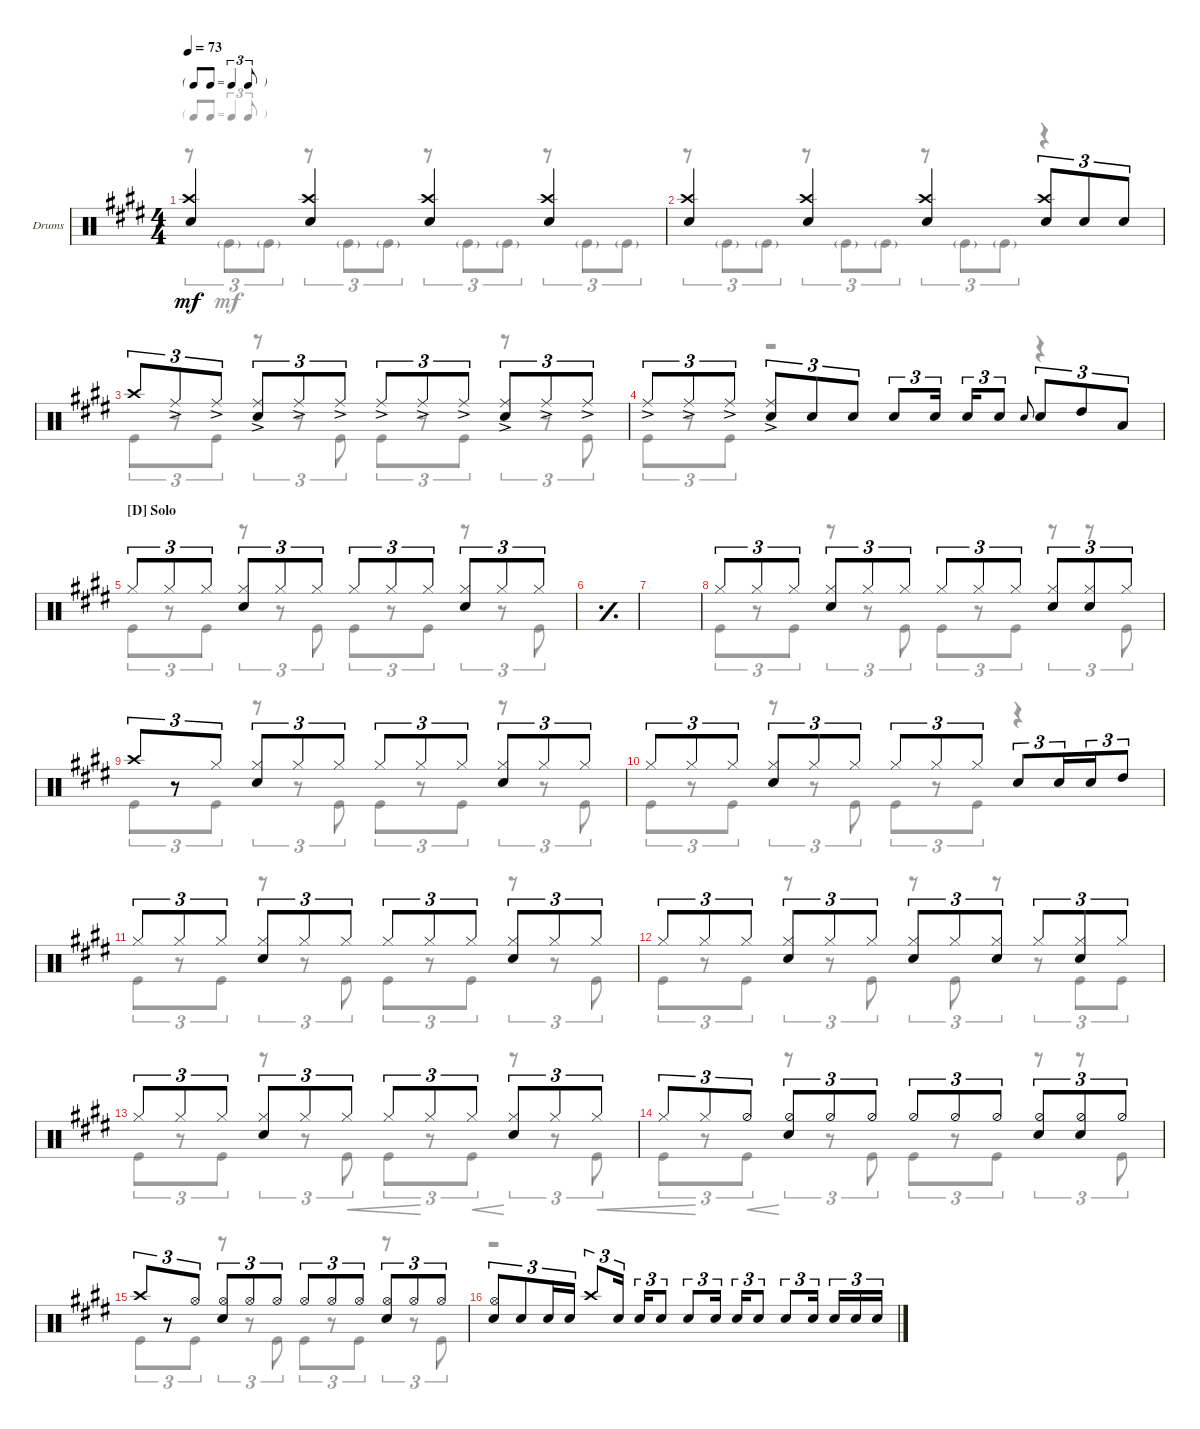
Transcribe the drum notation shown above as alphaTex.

\defaultSystemsLayout 4
\bracketExtendMode groupsimilarinstruments
\firstSystemTrackNameOrientation horizontal
\otherSystemsTrackNameOrientation horizontal
\track ("Drumkit" "Drums") {instrument percussion}
\staff {score}
\articulation defaults
\voice
\ts (4 4)
\tf triplet8th
\tempo 73
\clef neutral
\ks e
("Crash high (hit)" "Snare (hit) 2").4{dy mf} ("Crash high (hit)" "Snare (hit) 2").4 ("Crash high (hit)" "Snare (hit) 2").4 ("Crash high (hit)" "Snare (hit) 2").4 |
("Crash high (hit)" "Snare (hit) 2").4 ("Crash high (hit)" "Snare (hit) 2").4 ("Crash high (hit)" "Snare (hit) 2").4 ("Crash high (hit)" "Snare (hit) 2").8{tu (3 2)} "Snare (hit) 2".8{tu (3 2)} "Snare (hit) 2".8{tu (3 2)} |
"Crash high (hit)".8{tu (3 2)} "Ride (middle)"{ac}.8{tu (3 2)} "Ride (middle)"{ac}.8{tu (3 2)} ("Ride (middle)"{ac} "Snare (hit) 2").8{tu (3 2)} "Ride (middle)"{ac}.8{tu (3 2)} "Ride (middle)"{ac}.8{tu (3 2)} "Ride (middle)"{ac}.8{tu (3 2)} "Ride (middle)"{ac}.8{tu (3 2)} "Ride (middle)"{ac}.8{tu (3 2)} ("Ride (middle)"{ac} "Snare (hit) 2").8{tu (3 2)} "Ride (middle)"{ac}.8{tu (3 2)} "Ride (middle)"{ac}.8{tu (3 2)} |
"Ride (middle)"{ac}.8{tu (3 2)} "Ride (middle)"{ac}.8{tu (3 2)} "Ride (middle)"{ac}.8{tu (3 2)} ("Ride (middle)"{ac} "Snare (hit) 2").8{tu (3 2)} "Snare (hit) 2".8{tu (3 2)} "Snare (hit) 2".8{tu (3 2)} "Snare (hit) 2".8{tu (3 2)} "Snare (hit) 2".16{tu (3 2)} "Snare (hit) 2".16{tu (3 2)} "Snare (hit) 2".8{tu (3 2)} "Snare (hit) 2".8{tu (3 2) gr onbeat} "Snare (hit) 2".8{tu (3 2)} "High Tom (hit)".8{tu (3 2)} "Low Tom (hit)".8{tu (3 2)} |
\section ("D" "Solo")
"Hi-Hat (closed)".8{tu (3 2)} "Hi-Hat (closed)".8{tu (3 2)} "Hi-Hat (closed)".8{tu (3 2)} ("Hi-Hat (closed)" "Snare (hit) 2").8{tu (3 2)} "Hi-Hat (closed)".8{tu (3 2)} "Hi-Hat (closed)".8{tu (3 2)} "Hi-Hat (closed)".8{tu (3 2)} "Hi-Hat (closed)".8{tu (3 2)} "Hi-Hat (closed)".8{tu (3 2)} ("Hi-Hat (closed)" "Snare (hit) 2").8{tu (3 2)} "Hi-Hat (closed)".8{tu (3 2)} "Hi-Hat (closed)".8{tu (3 2)} |
\simile simple
|
|
\simile none "Hi-Hat (closed)".8{tu (3 2)} "Hi-Hat (closed)".8{tu (3 2)} "Hi-Hat (closed)".8{tu (3 2)}
("Hi-Hat (closed)" "Snare (hit) 2").8{tu (3 2)} "Hi-Hat (closed)".8{tu (3 2)} "Hi-Hat (closed)".8{tu (3 2)} "Hi-Hat (closed)".8{tu (3 2)} "Hi-Hat (closed)".8{tu (3 2)} "Hi-Hat (closed)".8{tu (3 2)} ("Hi-Hat (closed)" "Snare (hit) 2").8{tu (3 2)} ("Hi-Hat (closed)" "Snare (hit) 2").8{tu (3 2)} "Hi-Hat (closed)".8{tu (3 2)} |
"Crash high (hit)".8{tu (3 2)} r.8{tu (3 2)} "Hi-Hat (closed)".8{tu (3 2)} ("Hi-Hat (closed)" "Snare (hit) 2").8{tu (3 2)} "Hi-Hat (closed)".8{tu (3 2)} "Hi-Hat (closed)".8{tu (3 2)} "Hi-Hat (closed)".8{tu (3 2)} "Hi-Hat (closed)".8{tu (3 2)} "Hi-Hat (closed)".8{tu (3 2)} ("Hi-Hat (closed)" "Snare (hit) 2").8{tu (3 2)} "Hi-Hat (closed)".8{tu (3 2)} "Hi-Hat (closed)".8{tu (3 2)} |
"Hi-Hat (closed)".8{tu (3 2)} "Hi-Hat (closed)".8{tu (3 2)} "Hi-Hat (closed)".8{tu (3 2)} ("Hi-Hat (closed)" "Snare (hit) 2").8{tu (3 2)} "Hi-Hat (closed)".8{tu (3 2)} "Hi-Hat (closed)".8{tu (3 2)} "Hi-Hat (closed)".8{tu (3 2)} "Hi-Hat (closed)".8{tu (3 2)} "Hi-Hat (closed)".8{tu (3 2)} "Snare (hit) 2".8{tu (3 2)} "Snare (hit) 2".16{tu (3 2) beam merge} "Snare (hit) 2".16{tu (3 2) beam merge} "High Tom (hit)".8{tu (3 2)} |
"Hi-Hat (closed)".8{tu (3 2)} "Hi-Hat (closed)".8{tu (3 2)} "Hi-Hat (closed)".8{tu (3 2)} ("Hi-Hat (closed)" "Snare (hit) 2").8{tu (3 2)} "Hi-Hat (closed)".8{tu (3 2)} "Hi-Hat (closed)".8{tu (3 2)} "Hi-Hat (closed)".8{tu (3 2)} "Hi-Hat (closed)".8{tu (3 2)} "Hi-Hat (closed)".8{tu (3 2)} ("Hi-Hat (closed)" "Snare (hit) 2").8{tu (3 2)} "Hi-Hat (closed)".8{tu (3 2)} "Hi-Hat (closed)".8{tu (3 2)} |
"Hi-Hat (closed)".8{tu (3 2)} "Hi-Hat (closed)".8{tu (3 2)} "Hi-Hat (closed)".8{tu (3 2)} ("Hi-Hat (closed)" "Snare (hit) 2").8{tu (3 2)} "Hi-Hat (closed)".8{tu (3 2)} "Hi-Hat (closed)".8{tu (3 2)} ("Hi-Hat (closed)" "Snare (hit) 2").8{tu (3 2)} "Hi-Hat (closed)".8{tu (3 2)} ("Hi-Hat (closed)" "Snare (hit) 2").8{tu (3 2)} "Hi-Hat (closed)".8{tu (3 2)} ("Hi-Hat (closed)" "Snare (hit) 2").8{tu (3 2)} "Hi-Hat (closed)".8{tu (3 2)} |
"Hi-Hat (closed)".8{tu (3 2)} "Hi-Hat (closed)".8{tu (3 2)} "Hi-Hat (closed)".8{tu (3 2)} ("Hi-Hat (closed)" "Snare (hit) 2").8{tu (3 2)} "Hi-Hat (closed)".8{tu (3 2)} "Hi-Hat (closed)".8{tu (3 2)} "Hi-Hat (closed)".8{tu (3 2)} "Hi-Hat (closed)".8{tu (3 2)} "Hi-Hat (closed)".8{tu (3 2)} ("Hi-Hat (closed)" "Snare (hit) 2").8{tu (3 2)} "Hi-Hat (closed)".8{tu (3 2)} "Hi-Hat (closed)".8{tu (3 2)} |
"Hi-Hat (closed)".8{tu (3 2)} "Hi-Hat (closed)".8{tu (3 2)} "Hi-Hat (half)".8{tu (3 2)} ("Hi-Hat (half)" "Snare (hit) 2").8{tu (3 2)} "Hi-Hat (half)".8{tu (3 2)} "Hi-Hat (half)".8{tu (3 2)} "Hi-Hat (half)".8{tu (3 2)} "Hi-Hat (half)".8{tu (3 2)} "Hi-Hat (half)".8{tu (3 2)} ("Hi-Hat (half)" "Snare (hit) 2").8{tu (3 2)} ("Snare (hit) 2" "Hi-Hat (half)").8{tu (3 2)} "Hi-Hat (half)".8{tu (3 2)} |
"Crash high (hit)".8{tu (3 2)} r.8{tu (3 2)} "Hi-Hat (open)".8{tu (3 2)} ("Hi-Hat (open)" "Snare (hit) 2").8{tu (3 2)} "Hi-Hat (open)".8{tu (3 2)} "Hi-Hat (open)".8{tu (3 2)} "Hi-Hat (open)".8{tu (3 2)} "Hi-Hat (open)".8{tu (3 2)} "Hi-Hat (open)".8{tu (3 2)} ("Hi-Hat (open)" "Snare (hit) 2").8{tu (3 2)} "Hi-Hat (open)".8{tu (3 2)} "Hi-Hat (open)".8{tu (3 2)} |
("Hi-Hat (open)" "Snare (hit) 2").8{tu (3 2)} "Snare (hit) 2".8{tu (3 2)} "Snare (hit) 2".16{tu (3 2)} "Snare (hit) 2".16{tu (3 2)} "Crash high (hit)".8{tu (3 2)} "Snare (hit) 2".16{tu (3 2)} "Snare (hit) 2".16{tu (3 2)} "Snare (hit) 2".8{tu (3 2)} "Snare (hit) 2".8{tu (3 2)} "Snare (hit) 2".16{tu (3 2)} "Snare (hit) 2".16{tu (3 2)} "Snare (hit) 2".8{tu (3 2)} "Snare (hit) 2".8{tu (3 2)} "Snare (hit) 2".16{tu (3 2)} "Snare (hit) 2".16{tu (3 2)} "Snare (hit) 2".16{tu (3 2)} "Snare (hit) 2".16{tu (3 2)}
\voice
\clef neutral
\ottava regular
\simile none
\ks e
r.8{tu (3 2) dy mf} "Kick (hit)"{g}.8{tu (3 2)} "Kick (hit)"{g}.8{tu (3 2)} r.8{tu (3 2)} "Kick (hit)"{g}.8{tu (3 2)} "Kick (hit)"{g}.8{tu (3 2)} r.8{tu (3 2)} "Kick (hit)"{g}.8{tu (3 2)} "Kick (hit)"{g}.8{tu (3 2)} r.8{tu (3 2)} "Kick (hit)"{g}.8{tu (3 2)} "Kick (hit)"{g}.8{tu (3 2)} |
r.8{tu (3 2)} "Kick (hit)"{g}.8{tu (3 2)} "Kick (hit)"{g}.8{tu (3 2)} r.8{tu (3 2)} "Kick (hit)"{g}.8{tu (3 2)} "Kick (hit)"{g}.8{tu (3 2)} r.8{tu (3 2)} "Kick (hit)"{g}.8{tu (3 2)} "Kick (hit)"{g}.8{tu (3 2)} r.4 |
"Kick (hit)".8{tu (3 2)} r.8{tu (3 2)} "Kick (hit)".8{tu (3 2)} r.8{tu (3 2)} r.8{tu (3 2)} "Kick (hit)".8{tu (3 2)} "Kick (hit)".8{tu (3 2)} r.8{tu (3 2)} "Kick (hit)".8{tu (3 2)} r.8{tu (3 2)} r.8{tu (3 2)} "Kick (hit)".8{tu (3 2)} |
"Kick (hit)".8{tu (3 2)} r.8{tu (3 2)} "Kick (hit)".8{tu (3 2)} r.2 r.4 |
"Kick (hit)".8{tu (3 2)} r.8{tu (3 2)} "Kick (hit)".8{tu (3 2)} r.8{tu (3 2)} r.8{tu (3 2)} "Kick (hit)".8{tu (3 2)} "Kick (hit)".8{tu (3 2)} r.8{tu (3 2)} "Kick (hit)".8{tu (3 2)} r.8{tu (3 2)} r.8{tu (3 2)} "Kick (hit)".8{tu (3 2)} |
\simile simple
|
|
\simile none "Kick (hit)".8{tu (3 2)}
r.8{tu (3 2)} "Kick (hit)".8{tu (3 2)} r.8{tu (3 2)} r.8{tu (3 2)} "Kick (hit)".8{tu (3 2)} "Kick (hit)".8{tu (3 2)} r.8{tu (3 2)} "Kick (hit)".8{tu (3 2)} r.8{tu (3 2)} r.8{tu (3 2)} "Kick (hit)".8{tu (3 2)} |
"Kick (hit)".8{tu (3 2)} r.8{tu (3 2)} "Kick (hit)".8{tu (3 2)} r.8{tu (3 2)} r.8{tu (3 2)} "Kick (hit)".8{tu (3 2)} "Kick (hit)".8{tu (3 2)} r.8{tu (3 2)} "Kick (hit)".8{tu (3 2)} r.8{tu (3 2)} r.8{tu (3 2)} "Kick (hit)".8{tu (3 2)} |
"Kick (hit)".8{tu (3 2)} r.8{tu (3 2)} "Kick (hit)".8{tu (3 2)} r.8{tu (3 2)} r.8{tu (3 2)} "Kick (hit)".8{tu (3 2)} "Kick (hit)".8{tu (3 2)} r.8{tu (3 2)} "Kick (hit)".8{tu (3 2)} r.4 |
"Kick (hit)".8{tu (3 2)} r.8{tu (3 2)} "Kick (hit)".8{tu (3 2)} r.8{tu (3 2)} r.8{tu (3 2)} "Kick (hit)".8{tu (3 2)} "Kick (hit)".8{tu (3 2)} r.8{tu (3 2)} "Kick (hit)".8{tu (3 2)} r.8{tu (3 2)} r.8{tu (3 2)} "Kick (hit)".8{tu (3 2)} |
"Kick (hit)".8{tu (3 2)} r.8{tu (3 2)} "Kick (hit)".8{tu (3 2)} r.8{tu (3 2)} r.8{tu (3 2)} "Kick (hit)".8{tu (3 2)} r.8{tu (3 2)} "Kick (hit)".8{tu (3 2)} r.8{tu (3 2)} r.8{tu (3 2)} "Kick (hit)".8{tu (3 2)} "Kick (hit)".8{tu (3 2)} |
"Kick (hit)".8{tu (3 2)} r.8{tu (3 2)} "Kick (hit)".8{tu (3 2)} r.8{tu (3 2)} r.8{tu (3 2)} "Kick (hit)".8{tu (3 2) cre} "Kick (hit)".8{tu (3 2) cre} r.8{tu (3 2)} "Kick (hit)".8{tu (3 2) cre} r.8{tu (3 2)} r.8{tu (3 2)} "Kick (hit)".8{tu (3 2) cre} |
"Kick (hit)".8{tu (3 2) cre} r.8{tu (3 2)} "Kick (hit)".8{tu (3 2) cre} r.8{tu (3 2)} r.8{tu (3 2)} "Kick (hit)".8{tu (3 2)} "Kick (hit)".8{tu (3 2)} r.8{tu (3 2)} "Kick (hit)".8{tu (3 2)} r.8{tu (3 2)} r.8{tu (3 2)} "Kick (hit)".8{tu (3 2)} |
"Kick (hit)".8{tu (3 2)} r.8{tu (3 2)} "Kick (hit)".8{tu (3 2)} r.8{tu (3 2)} r.8{tu (3 2)} "Kick (hit)".8{tu (3 2)} "Kick (hit)".8{tu (3 2)} r.8{tu (3 2)} "Kick (hit)".8{tu (3 2)} r.8{tu (3 2)} r.8{tu (3 2)} "Kick (hit)".8{tu (3 2)} |
r.1
